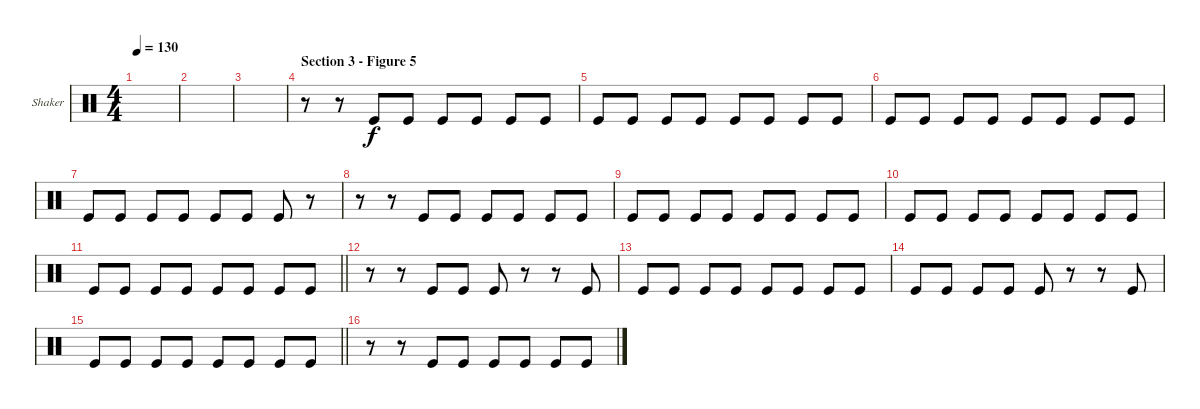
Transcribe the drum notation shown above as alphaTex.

\defaultSystemsLayout 4
\bracketExtendMode groupsimilarinstruments
\firstSystemTrackNameOrientation horizontal
\otherSystemsTrackNameOrientation horizontal
\track ("Shaker" "Shaker") {instrument percussion}
\staff {score}
\articulation defaults
\ts (4 4)
\tempo 130
\clef neutral
\scale
0.333333
\ks aminor
|
\scale
0.333333 |
\scale
0.333333 |
\section ("" "Section 3 - Figure 5")
\scale
0.333333 r.8 r.8 "Kick (hit)".8 "Kick (hit)".8 "Kick (hit)".8 "Kick (hit)".8 "Kick (hit)".8 "Kick (hit)".8 |
\scale
0.333333 "Kick (hit)".8 "Kick (hit)".8 "Kick (hit)".8 "Kick (hit)".8 "Kick (hit)".8 "Kick (hit)".8 "Kick (hit)".8 "Kick (hit)".8 |
\scale
0.333333 "Kick (hit)".8 "Kick (hit)".8 "Kick (hit)".8 "Kick (hit)".8 "Kick (hit)".8 "Kick (hit)".8 "Kick (hit)".8 "Kick (hit)".8 |
\scale
0.333333 "Kick (hit)".8 "Kick (hit)".8 "Kick (hit)".8 "Kick (hit)".8 "Kick (hit)".8 "Kick (hit)".8 "Kick (hit)".8 r.8 |
\scale
0.333333 r.8 r.8 "Kick (hit)".8 "Kick (hit)".8 "Kick (hit)".8 "Kick (hit)".8 "Kick (hit)".8 "Kick (hit)".8 |
\scale
0.333333 "Kick (hit)".8 "Kick (hit)".8 "Kick (hit)".8 "Kick (hit)".8 "Kick (hit)".8 "Kick (hit)".8 "Kick (hit)".8 "Kick (hit)".8 |
\scale
0.333333 "Kick (hit)".8 "Kick (hit)".8 "Kick (hit)".8 "Kick (hit)".8 "Kick (hit)".8 "Kick (hit)".8 "Kick (hit)".8 "Kick (hit)".8 |
\scale
0.333333
\barLineRight lightlight "Kick (hit)".8 "Kick (hit)".8 "Kick (hit)".8 "Kick (hit)".8 "Kick (hit)".8 "Kick (hit)".8 "Kick (hit)".8 "Kick (hit)".8
|
\scale
0.333333 r.8 r.8 "Kick (hit)".8 "Kick (hit)".8 "Kick (hit)".8 r.8 r.8 "Kick (hit)".8 |
\scale
0.333333 "Kick (hit)".8 "Kick (hit)".8 "Kick (hit)".8 "Kick (hit)".8 "Kick (hit)".8 "Kick (hit)".8 "Kick (hit)".8 "Kick (hit)".8 |
\scale
0.333333 "Kick (hit)".8 "Kick (hit)".8 "Kick (hit)".8 "Kick (hit)".8 "Kick (hit)".8 r.8 r.8 "Kick (hit)".8 |
\scale
0.333333
\barLineRight lightlight "Kick (hit)".8 "Kick (hit)".8 "Kick (hit)".8 "Kick (hit)".8 "Kick (hit)".8 "Kick (hit)".8 "Kick (hit)".8 "Kick (hit)".8
|
\scale
0.333333 r.8 r.8 "Kick (hit)".8 "Kick (hit)".8 "Kick (hit)".8 "Kick (hit)".8 "Kick (hit)".8 "Kick (hit)".8
